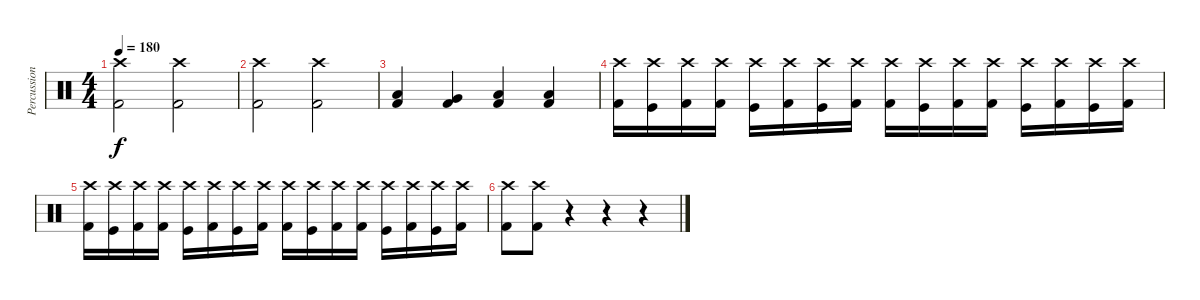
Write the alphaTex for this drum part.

\track ("Percussion" "Percussion") {instrument percussion}
\staff {score}
\articulation defaults
\ts (4 4)
\tempo 180
\clef neutral
\ks c
("Crash high (hit)" "Kick (hit) 2").2{dy f} ("Crash high (hit)" "Kick (hit) 2").2 |
("Crash high (hit)" "Kick (hit) 2").2 ("Crash high (hit)" "Kick (hit) 2").2 |
("Low Tom (hit)" "Kick (hit) 2").4 ("Very Low Tom (hit)" "Kick (hit) 2").4 ("Low Floor Tom (hit)" "Kick (hit) 2").4 ("Low Tom (hit)" "Kick (hit) 2").4 |
("Crash high (hit)" "Kick (hit) 2").16 ("Crash high (hit)" "Kick (hit)").16 ("Crash high (hit)" "Kick (hit) 2").16 ("Crash high (hit)" "Kick (hit) 2").16 ("Crash high (hit)" "Kick (hit)").16 ("Crash high (hit)" "Kick (hit) 2").16 ("Crash high (hit)" "Kick (hit)").16 ("Crash high (hit)" "Kick (hit) 2").16 ("Crash high (hit)" "Kick (hit) 2").16 ("Crash high (hit)" "Kick (hit)").16 ("Crash high (hit)" "Kick (hit) 2").16 ("Crash high (hit)" "Kick (hit) 2").16 ("Crash high (hit)" "Kick (hit)").16 ("Crash high (hit)" "Kick (hit) 2").16 ("Crash high (hit)" "Kick (hit)").16 ("Crash high (hit)" "Kick (hit) 2").16 |
("Crash high (hit)" "Kick (hit) 2").16 ("Crash high (hit)" "Kick (hit)").16 ("Crash high (hit)" "Kick (hit) 2").16 ("Crash high (hit)" "Kick (hit) 2").16 ("Crash high (hit)" "Kick (hit)").16 ("Crash high (hit)" "Kick (hit) 2").16 ("Crash high (hit)" "Kick (hit)").16 ("Crash high (hit)" "Kick (hit) 2").16 ("Crash high (hit)" "Kick (hit) 2").16 ("Crash high (hit)" "Kick (hit)").16 ("Crash high (hit)" "Kick (hit) 2").16 ("Crash high (hit)" "Kick (hit) 2").16 ("Crash high (hit)" "Kick (hit)").16 ("Crash high (hit)" "Kick (hit) 2").16 ("Crash high (hit)" "Kick (hit)").16 ("Crash high (hit)" "Kick (hit) 2").16 |
("Crash high (hit)" "Kick (hit) 2").8 ("Crash high (hit)" "Kick (hit) 2").8 r.4 r.4 r.4
